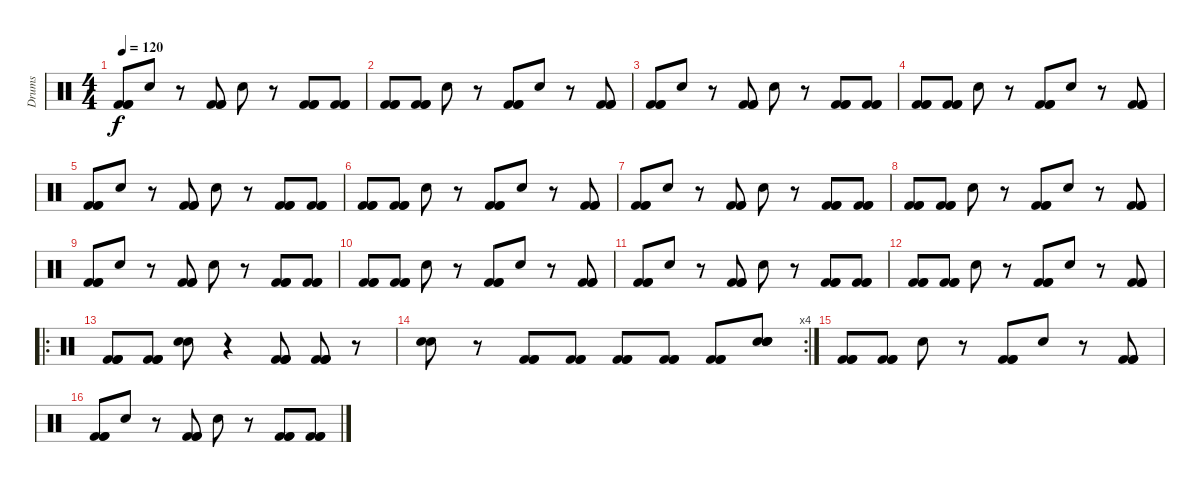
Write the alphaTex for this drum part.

\track ("Drums" "Drums") {instrument percussion}
\staff {score}
\articulation defaults
\ts (4 4)
\tempo 120
\clef neutral
\ks c
("Kick (hit) 2" "Kick (hit) 2" "Kick (hit) 2").8{dy f} "Snare (hit) 2".8 r.8 ("Kick (hit) 2" "Kick (hit) 2" "Kick (hit) 2").8 "Snare (hit) 2".8 r.8 ("Kick (hit) 2" "Kick (hit) 2" "Kick (hit) 2").8 ("Kick (hit) 2" "Kick (hit) 2" "Kick (hit) 2").8 |
("Kick (hit) 2" "Kick (hit) 2" "Kick (hit) 2").8 ("Kick (hit) 2" "Kick (hit) 2" "Kick (hit) 2").8 "Snare (hit) 2".8 r.8 ("Kick (hit) 2" "Kick (hit) 2" "Kick (hit) 2").8 "Snare (hit) 2".8 r.8 ("Kick (hit) 2" "Kick (hit) 2" "Kick (hit) 2").8 |
("Kick (hit) 2" "Kick (hit) 2" "Kick (hit) 2").8 "Snare (hit) 2".8 r.8 ("Kick (hit) 2" "Kick (hit) 2" "Kick (hit) 2").8 "Snare (hit) 2".8 r.8 ("Kick (hit) 2" "Kick (hit) 2" "Kick (hit) 2").8 ("Kick (hit) 2" "Kick (hit) 2" "Kick (hit) 2").8 |
("Kick (hit) 2" "Kick (hit) 2" "Kick (hit) 2").8 ("Kick (hit) 2" "Kick (hit) 2" "Kick (hit) 2").8 "Snare (hit) 2".8 r.8 ("Kick (hit) 2" "Kick (hit) 2" "Kick (hit) 2").8 "Snare (hit) 2".8 r.8 ("Kick (hit) 2" "Kick (hit) 2" "Kick (hit) 2").8 |
("Kick (hit) 2" "Kick (hit) 2" "Kick (hit) 2").8 "Snare (hit) 2".8 r.8 ("Kick (hit) 2" "Kick (hit) 2" "Kick (hit) 2").8 "Snare (hit) 2".8 r.8 ("Kick (hit) 2" "Kick (hit) 2" "Kick (hit) 2").8 ("Kick (hit) 2" "Kick (hit) 2" "Kick (hit) 2").8 |
("Kick (hit) 2" "Kick (hit) 2" "Kick (hit) 2").8 ("Kick (hit) 2" "Kick (hit) 2" "Kick (hit) 2").8 "Snare (hit) 2".8 r.8 ("Kick (hit) 2" "Kick (hit) 2" "Kick (hit) 2").8 "Snare (hit) 2".8 r.8 ("Kick (hit) 2" "Kick (hit) 2" "Kick (hit) 2").8 |
("Kick (hit) 2" "Kick (hit) 2" "Kick (hit) 2").8 "Snare (hit) 2".8 r.8 ("Kick (hit) 2" "Kick (hit) 2" "Kick (hit) 2").8 "Snare (hit) 2".8 r.8 ("Kick (hit) 2" "Kick (hit) 2" "Kick (hit) 2").8 ("Kick (hit) 2" "Kick (hit) 2" "Kick (hit) 2").8 |
("Kick (hit) 2" "Kick (hit) 2" "Kick (hit) 2").8 ("Kick (hit) 2" "Kick (hit) 2" "Kick (hit) 2").8 "Snare (hit) 2".8 r.8 ("Kick (hit) 2" "Kick (hit) 2" "Kick (hit) 2").8 "Snare (hit) 2".8 r.8 ("Kick (hit) 2" "Kick (hit) 2" "Kick (hit) 2").8 |
("Kick (hit) 2" "Kick (hit) 2" "Kick (hit) 2").8 "Snare (hit) 2".8 r.8 ("Kick (hit) 2" "Kick (hit) 2" "Kick (hit) 2").8 "Snare (hit) 2".8 r.8 ("Kick (hit) 2" "Kick (hit) 2" "Kick (hit) 2").8 ("Kick (hit) 2" "Kick (hit) 2" "Kick (hit) 2").8 |
("Kick (hit) 2" "Kick (hit) 2" "Kick (hit) 2").8 ("Kick (hit) 2" "Kick (hit) 2" "Kick (hit) 2").8 "Snare (hit) 2".8 r.8 ("Kick (hit) 2" "Kick (hit) 2" "Kick (hit) 2").8 "Snare (hit) 2".8 r.8 ("Kick (hit) 2" "Kick (hit) 2" "Kick (hit) 2").8 |
("Kick (hit) 2" "Kick (hit) 2" "Kick (hit) 2").8 "Snare (hit) 2".8 r.8 ("Kick (hit) 2" "Kick (hit) 2" "Kick (hit) 2").8 "Snare (hit) 2".8 r.8 ("Kick (hit) 2" "Kick (hit) 2" "Kick (hit) 2").8 ("Kick (hit) 2" "Kick (hit) 2" "Kick (hit) 2").8 |
("Kick (hit) 2" "Kick (hit) 2" "Kick (hit) 2").8 ("Kick (hit) 2" "Kick (hit) 2" "Kick (hit) 2").8 "Snare (hit) 2".8 r.8 ("Kick (hit) 2" "Kick (hit) 2" "Kick (hit) 2").8 "Snare (hit) 2".8 r.8 ("Kick (hit) 2" "Kick (hit) 2" "Kick (hit) 2").8 |
\ro
("Kick (hit) 2" "Kick (hit) 2" "Kick (hit) 2" "Kick (hit) 2").8 ("Kick (hit) 2" "Kick (hit) 2" "Kick (hit) 2" "Kick (hit) 2").8 ("Snare (hit) 2" "Snare (hit) 2").8 r.4 ("Kick (hit) 2" "Kick (hit) 2" "Kick (hit) 2" "Kick (hit) 2").8 ("Kick (hit) 2" "Kick (hit) 2" "Kick (hit) 2" "Kick (hit) 2").8 r.8 |
\rc 4
("Snare (hit) 2" "Snare (hit) 2").8 r.8 ("Kick (hit) 2" "Kick (hit) 2" "Kick (hit) 2").8 ("Kick (hit) 2" "Kick (hit) 2" "Kick (hit) 2").8 ("Kick (hit) 2" "Kick (hit) 2" "Kick (hit) 2").8 ("Kick (hit) 2" "Kick (hit) 2" "Kick (hit) 2").8 ("Kick (hit) 2" "Kick (hit) 2" "Kick (hit) 2").8 ("Snare (hit) 2" "Snare (hit) 2" "Snare (hit) 2" "Snare (hit) 2").8 |
("Kick (hit) 2" "Kick (hit) 2" "Kick (hit) 2").8 ("Kick (hit) 2" "Kick (hit) 2" "Kick (hit) 2").8 "Snare (hit) 2".8 r.8 ("Kick (hit) 2" "Kick (hit) 2" "Kick (hit) 2").8 "Snare (hit) 2".8 r.8 ("Kick (hit) 2" "Kick (hit) 2" "Kick (hit) 2").8 |
("Kick (hit) 2" "Kick (hit) 2" "Kick (hit) 2").8 "Snare (hit) 2".8 r.8 ("Kick (hit) 2" "Kick (hit) 2" "Kick (hit) 2").8 "Snare (hit) 2".8 r.8 ("Kick (hit) 2" "Kick (hit) 2" "Kick (hit) 2").8 ("Kick (hit) 2" "Kick (hit) 2" "Kick (hit) 2").8
